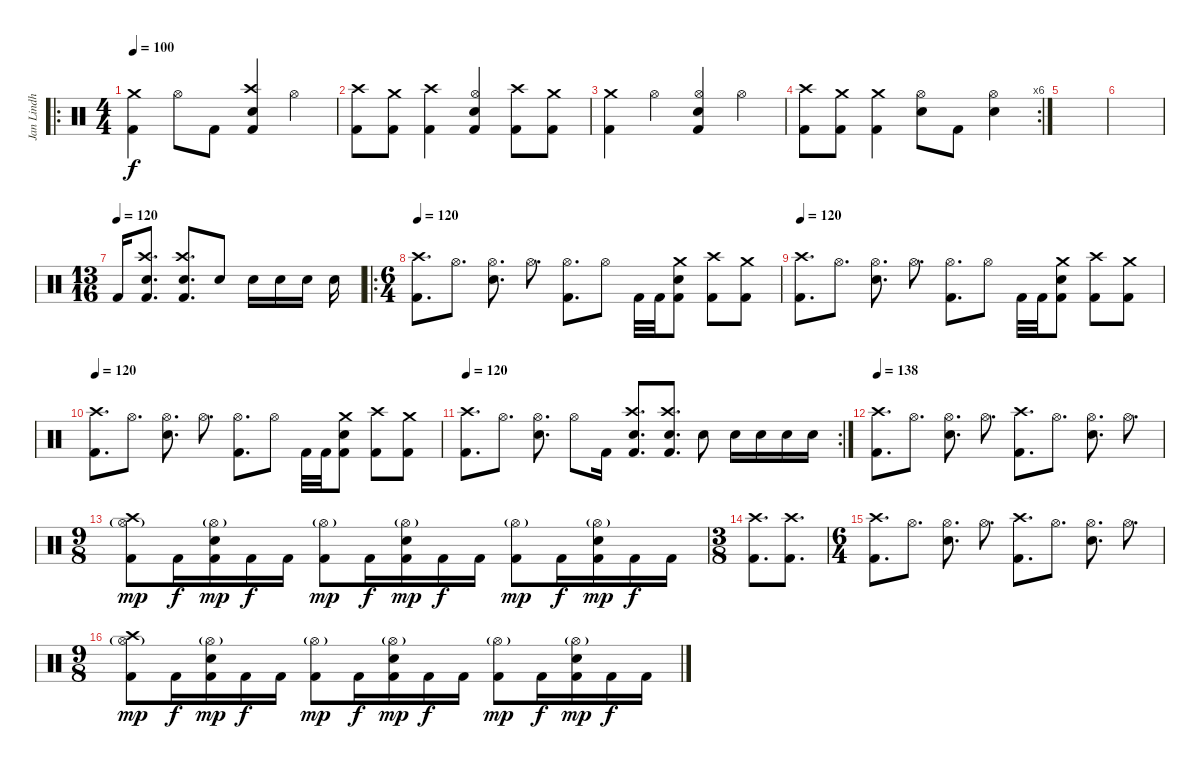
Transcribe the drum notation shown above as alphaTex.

\track ("Jan Lindh" "Jan Lindh") {instrument percussion}
\staff {score}
\articulation defaults
\ro
\ts (4 4)
\tempo 100
\clef neutral
\ks c
("Crash medium (hit)" "Kick (hit) 2").4{dy f} "Hi-Hat (open)".8 "Kick (hit) 2".8 ("Crash high (hit)" "Electric Snare (hit)" "Kick (hit) 2").4 "Hi-Hat (open)".4 |
("Crash high (hit)" "Kick (hit) 2").8 ("Crash medium (hit)" "Kick (hit) 2").8 ("Crash high (hit)" "Kick (hit) 2").4 ("Hi-Hat (open)" "Electric Snare (hit)" "Kick (hit) 2").4 ("Crash high (hit)" "Kick (hit) 2").8 ("Crash medium (hit)" "Kick (hit) 2").8 |
("Crash medium (hit)" "Kick (hit) 2").4 "Hi-Hat (open)".4 ("Hi-Hat (open)" "Electric Snare (hit)" "Kick (hit) 2").4 "Hi-Hat (open)".4 |
\rc 6
("Crash high (hit)" "Kick (hit) 2").8 ("Crash medium (hit)" "Kick (hit) 2").8 ("Crash medium (hit)" "Kick (hit) 2").4 ("Hi-Hat (open)" "Electric Snare (hit)").8 "Kick (hit) 2".8 ("Hi-Hat (open)" "Electric Snare (hit)").4 |
|
|
\ts (13 16)
\tempo (120)
"Kick (hit) 2".16 ("Crash high (hit)" "Electric Snare (hit)" "Kick (hit) 2").8{d} ("Crash high (hit)" "Electric Snare (hit)" "Kick (hit) 2").8{d} "Electric Snare (hit)".8 "Electric Snare (hit)".16 "Electric Snare (hit)".16 "Electric Snare (hit)".16 "Electric Snare (hit)".16 |
\ro
\ts (6 4)
\tempo 120
("Crash high (hit)" "Kick (hit) 2").8{d} "Hi-Hat (open)".8{d} ("Hi-Hat (open)" "Electric Snare (hit)").8{d} "Hi-Hat (open)".8{d} ("Hi-Hat (open)" "Kick (hit) 2").8{d} "Hi-Hat (open)".8 "Kick (hit) 2".32 "Kick (hit) 2".32 ("Crash medium (hit)" "Electric Snare (hit)" "Kick (hit) 2").8 ("Crash high (hit)" "Kick (hit) 2").8 ("Crash medium (hit)" "Kick (hit) 2").8 |
\tempo 120
("Crash high (hit)" "Kick (hit) 2").8{d} "Hi-Hat (open)".8{d} ("Hi-Hat (open)" "Electric Snare (hit)").8{d} "Hi-Hat (open)".8{d} ("Hi-Hat (open)" "Kick (hit) 2").8{d} "Hi-Hat (open)".8 "Kick (hit) 2".32 "Kick (hit) 2".32 ("Crash medium (hit)" "Electric Snare (hit)" "Kick (hit) 2").8 ("Crash high (hit)" "Kick (hit) 2").8 ("Crash medium (hit)" "Kick (hit) 2").8 |
\tempo 120
("Crash high (hit)" "Kick (hit) 2").8{d} "Hi-Hat (open)".8{d} ("Hi-Hat (open)" "Electric Snare (hit)").8{d} "Hi-Hat (open)".8{d} ("Hi-Hat (open)" "Kick (hit) 2").8{d} "Hi-Hat (open)".8 "Kick (hit) 2".32 "Kick (hit) 2".32 ("Crash medium (hit)" "Electric Snare (hit)" "Kick (hit) 2").8 ("Crash high (hit)" "Kick (hit) 2").8 ("Crash medium (hit)" "Kick (hit) 2").8 |
\rc 2
\tempo 120
("Crash high (hit)" "Kick (hit) 2").8{d} "Hi-Hat (open)".8{d} ("Hi-Hat (open)" "Electric Snare (hit)").8{d} "Hi-Hat (open)".8 "Kick (hit) 2".16 ("Crash high (hit)" "Electric Snare (hit)" "Kick (hit) 2").8{d} ("Crash high (hit)" "Electric Snare (hit)" "Kick (hit) 2").8{d} "Electric Snare (hit)".8 "Electric Snare (hit)".16 "Electric Snare (hit)".16 "Electric Snare (hit)".16 "Electric Snare (hit)".16 |
\tempo 138
("Crash high (hit)" "Kick (hit) 2").8{d} "Hi-Hat (open)".8{d} ("Hi-Hat (open)" "Electric Snare (hit)").8{d} "Hi-Hat (open)".8{d} ("Crash high (hit)" "Kick (hit) 2").8{d} "Hi-Hat (open)".8{d} ("Hi-Hat (open)" "Electric Snare (hit)").8{d} "Hi-Hat (open)".8{d} |
\ts (9 8)
("Crash high (hit)" "Hi-Hat (open)"{g} "Kick (hit) 2").8{dy mp} "Kick (hit) 2".16{dy f} ("Hi-Hat (open)"{g} "Electric Snare (hit)" "Kick (hit) 2").16{dy mp} "Kick (hit) 2".16{dy f} "Kick (hit) 2".16 ("Hi-Hat (open)"{g} "Kick (hit) 2").8{dy mp} "Kick (hit) 2".16{dy f} ("Hi-Hat (open)"{g} "Electric Snare (hit)" "Kick (hit) 2").16{dy mp} "Kick (hit) 2".16{dy f} "Kick (hit) 2".16 ("Hi-Hat (open)"{g} "Kick (hit) 2").8{dy mp} "Kick (hit) 2".16{dy f} ("Hi-Hat (open)"{g} "Electric Snare (hit)" "Kick (hit) 2").16{dy mp} "Kick (hit) 2".16{dy f} "Kick (hit) 2".16 |
\ts (3 8)
("Crash high (hit)" "Kick (hit) 2").8{d} ("Crash high (hit)" "Kick (hit) 2").8{d} |
\ts (6 4)
("Crash high (hit)" "Kick (hit) 2").8{d} "Hi-Hat (open)".8{d} ("Hi-Hat (open)" "Electric Snare (hit)").8{d} "Hi-Hat (open)".8{d} ("Crash high (hit)" "Kick (hit) 2").8{d} "Hi-Hat (open)".8{d} ("Hi-Hat (open)" "Electric Snare (hit)").8{d} "Hi-Hat (open)".8{d} |
\ts (9 8)
("Crash high (hit)" "Hi-Hat (open)"{g} "Kick (hit) 2").8{dy mp} "Kick (hit) 2".16{dy f} ("Hi-Hat (open)"{g} "Electric Snare (hit)" "Kick (hit) 2").16{dy mp} "Kick (hit) 2".16{dy f} "Kick (hit) 2".16 ("Hi-Hat (open)"{g} "Kick (hit) 2").8{dy mp} "Kick (hit) 2".16{dy f} ("Hi-Hat (open)"{g} "Electric Snare (hit)" "Kick (hit) 2").16{dy mp} "Kick (hit) 2".16{dy f} "Kick (hit) 2".16 ("Hi-Hat (open)"{g} "Kick (hit) 2").8{dy mp} "Kick (hit) 2".16{dy f} ("Hi-Hat (open)"{g} "Electric Snare (hit)" "Kick (hit) 2").16{dy mp} "Kick (hit) 2".16{dy f} "Kick (hit) 2".16
